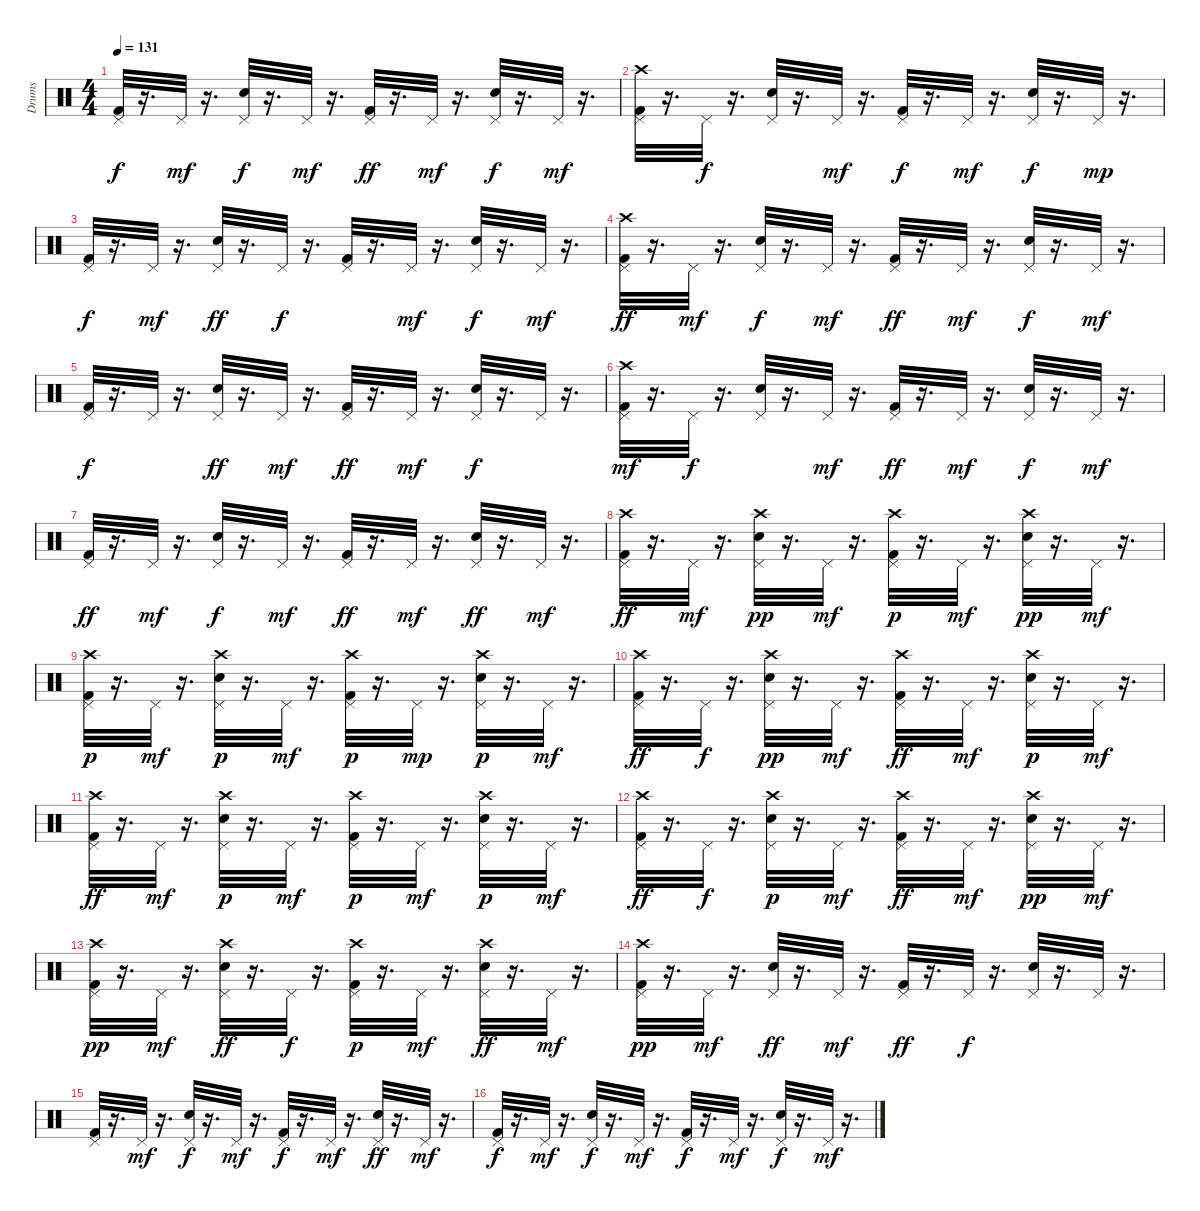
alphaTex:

\track ("Drums" "Drums") {instrument percussion}
\staff {score}
\articulation defaults
\ts (4 4)
\tempo 131
\clef neutral
\ks c
("Pedal Hi-Hat (hit)" "Kick (hit) 2").32{dy f} r.16{d} "Pedal Hi-Hat (hit)".32{dy mf} r.16{d} ("Snare (hit) 2" "Pedal Hi-Hat (hit)").32{dy f} r.16{d} "Pedal Hi-Hat (hit)".32{dy mf} r.16{d} ("Pedal Hi-Hat (hit)" "Kick (hit) 2").32{dy ff} r.16{d} "Pedal Hi-Hat (hit)".32{dy mf} r.16{d} ("Snare (hit) 2" "Pedal Hi-Hat (hit)").32{dy f} r.16{d} "Pedal Hi-Hat (hit)".32{dy mf} r.16{d} |
("Pedal Hi-Hat (hit)" "Kick (hit) 2" "Crash high (hit)").32 r.16{d} "Pedal Hi-Hat (hit)".32{dy f} r.16{d} ("Snare (hit) 2" "Pedal Hi-Hat (hit)").32 r.16{d} "Pedal Hi-Hat (hit)".32{dy mf} r.16{d} ("Pedal Hi-Hat (hit)" "Kick (hit) 2").32{dy f} r.16{d} "Pedal Hi-Hat (hit)".32{dy mf} r.16{d} ("Snare (hit) 2" "Pedal Hi-Hat (hit)").32{dy f} r.16{d} "Pedal Hi-Hat (hit)".32{dy mp} r.16{d} |
("Kick (hit) 2" "Pedal Hi-Hat (hit)").32{dy f} r.16{d} "Pedal Hi-Hat (hit)".32{dy mf} r.16{d} ("Pedal Hi-Hat (hit)" "Snare (hit) 2").32{dy ff} r.16{d} "Pedal Hi-Hat (hit)".32{dy f} r.16{d} ("Kick (hit) 2" "Pedal Hi-Hat (hit)").32 r.16{d} "Pedal Hi-Hat (hit)".32{dy mf} r.16{d} ("Snare (hit) 2" "Pedal Hi-Hat (hit)").32{dy f} r.16{d} "Pedal Hi-Hat (hit)".32{dy mf} r.16{d} |
("Crash high (hit)" "Kick (hit) 2" "Pedal Hi-Hat (hit)").32{dy ff} r.16{d} "Pedal Hi-Hat (hit)".32{dy mf} r.16{d} ("Pedal Hi-Hat (hit)" "Snare (hit) 2").32{dy f} r.16{d} "Pedal Hi-Hat (hit)".32{dy mf} r.16{d} ("Kick (hit) 2" "Pedal Hi-Hat (hit)").32{dy ff} r.16{d} "Pedal Hi-Hat (hit)".32{dy mf} r.16{d} ("Pedal Hi-Hat (hit)" "Snare (hit) 2").32{dy f} r.16{d} "Pedal Hi-Hat (hit)".32{dy mf} r.16{d} |
("Pedal Hi-Hat (hit)" "Kick (hit) 2").32{dy f} r.16{d} "Pedal Hi-Hat (hit)".32 r.16{d} ("Snare (hit) 2" "Pedal Hi-Hat (hit)").32{dy ff} r.16{d} "Pedal Hi-Hat (hit)".32{dy mf} r.16{d} ("Pedal Hi-Hat (hit)" "Kick (hit) 2").32{dy ff} r.16{d} "Pedal Hi-Hat (hit)".32{dy mf} r.16{d} ("Pedal Hi-Hat (hit)" "Snare (hit) 2").32{dy f} r.16{d} "Pedal Hi-Hat (hit)".32 r.16{d} |
("Pedal Hi-Hat (hit)" "Kick (hit) 2" "Crash high (hit)").32{dy mf} r.16{d} "Pedal Hi-Hat (hit)".32{dy f} r.16{d} ("Snare (hit) 2" "Pedal Hi-Hat (hit)").32 r.16{d} "Pedal Hi-Hat (hit)".32{dy mf} r.16{d} ("Pedal Hi-Hat (hit)" "Kick (hit) 2").32{dy ff} r.16{d} "Pedal Hi-Hat (hit)".32{dy mf} r.16{d} ("Snare (hit) 2" "Pedal Hi-Hat (hit)").32{dy f} r.16{d} "Pedal Hi-Hat (hit)".32{dy mf} r.16{d} |
("Pedal Hi-Hat (hit)" "Kick (hit) 2").32{dy ff} r.16{d} "Pedal Hi-Hat (hit)".32{dy mf} r.16{d} ("Pedal Hi-Hat (hit)" "Snare (hit) 2").32{dy f} r.16{d} "Pedal Hi-Hat (hit)".32{dy mf} r.16{d} ("Pedal Hi-Hat (hit)" "Kick (hit) 2").32{dy ff} r.16{d} "Pedal Hi-Hat (hit)".32{dy mf} r.16{d} ("Snare (hit) 2" "Pedal Hi-Hat (hit)").32{dy ff} r.16{d} "Pedal Hi-Hat (hit)".32{dy mf} r.16{d} |
("Kick (hit) 2" "Crash high (hit)" "Pedal Hi-Hat (hit)").32{dy ff} r.16{d} "Pedal Hi-Hat (hit)".32{dy mf} r.16{d} ("Crash high (hit)" "Snare (hit) 2" "Pedal Hi-Hat (hit)").32{dy pp} r.16{d} "Pedal Hi-Hat (hit)".32{dy mf} r.16{d} ("Pedal Hi-Hat (hit)" "Kick (hit) 2" "Crash high (hit)").32{dy p} r.16{d} "Pedal Hi-Hat (hit)".32{dy mf} r.16{d} ("Snare (hit) 2" "Crash high (hit)" "Pedal Hi-Hat (hit)").32{dy pp} r.16{d} "Pedal Hi-Hat (hit)".32{dy mf} r.16{d} |
("Crash high (hit)" "Pedal Hi-Hat (hit)" "Kick (hit) 2").32{dy p} r.16{d} "Pedal Hi-Hat (hit)".32{dy mf} r.16{d} ("Pedal Hi-Hat (hit)" "Snare (hit) 2" "Crash high (hit)").32{dy p} r.16{d} "Pedal Hi-Hat (hit)".32{dy mf} r.16{d} ("Crash high (hit)" "Kick (hit) 2" "Pedal Hi-Hat (hit)").32{dy p} r.16{d} "Pedal Hi-Hat (hit)".32{dy mp} r.16{d} ("Pedal Hi-Hat (hit)" "Crash high (hit)" "Snare (hit) 2").32{dy p} r.16{d} "Pedal Hi-Hat (hit)".32{dy mf} r.16{d} |
("Crash high (hit)" "Kick (hit) 2" "Pedal Hi-Hat (hit)").32{dy ff} r.16{d} "Pedal Hi-Hat (hit)".32{dy f} r.16{d} ("Pedal Hi-Hat (hit)" "Snare (hit) 2" "Crash high (hit)").32{dy pp} r.16{d} "Pedal Hi-Hat (hit)".32{dy mf} r.16{d} ("Kick (hit) 2" "Crash high (hit)" "Pedal Hi-Hat (hit)").32{dy ff} r.16{d} "Pedal Hi-Hat (hit)".32{dy mf} r.16{d} ("Pedal Hi-Hat (hit)" "Snare (hit) 2" "Crash high (hit)").32{dy p} r.16{d} "Pedal Hi-Hat (hit)".32{dy mf} r.16{d} |
("Crash high (hit)" "Kick (hit) 2" "Pedal Hi-Hat (hit)").32{dy ff} r.16{d} "Pedal Hi-Hat (hit)".32{dy mf} r.16{d} ("Pedal Hi-Hat (hit)" "Crash high (hit)" "Snare (hit) 2").32{dy p} r.16{d} "Pedal Hi-Hat (hit)".32{dy mf} r.16{d} ("Pedal Hi-Hat (hit)" "Kick (hit) 2" "Crash high (hit)").32{dy p} r.16{d} "Pedal Hi-Hat (hit)".32{dy mf} r.16{d} ("Pedal Hi-Hat (hit)" "Snare (hit) 2" "Crash high (hit)").32{dy p} r.16{d} "Pedal Hi-Hat (hit)".32{dy mf} r.16{d} |
("Crash high (hit)" "Pedal Hi-Hat (hit)" "Kick (hit) 2").32{dy ff} r.16{d} "Pedal Hi-Hat (hit)".32{dy f} r.16{d} ("Pedal Hi-Hat (hit)" "Snare (hit) 2" "Crash high (hit)").32{dy p} r.16{d} "Pedal Hi-Hat (hit)".32{dy mf} r.16{d} ("Kick (hit) 2" "Crash high (hit)" "Pedal Hi-Hat (hit)").32{dy ff} r.16{d} "Pedal Hi-Hat (hit)".32{dy mf} r.16{d} ("Snare (hit) 2" "Pedal Hi-Hat (hit)" "Crash high (hit)").32{dy pp} r.16{d} "Pedal Hi-Hat (hit)".32{dy mf} r.16{d} |
("Crash high (hit)" "Pedal Hi-Hat (hit)" "Kick (hit) 2").32{dy pp} r.16{d} "Pedal Hi-Hat (hit)".32{dy mf} r.16{d} ("Crash high (hit)" "Pedal Hi-Hat (hit)" "Snare (hit) 2").32{dy ff} r.16{d} "Pedal Hi-Hat (hit)".32{dy f} r.16{d} ("Pedal Hi-Hat (hit)" "Kick (hit) 2" "Crash high (hit)").32{dy p} r.16{d} "Pedal Hi-Hat (hit)".32{dy mf} r.16{d} ("Snare (hit) 2" "Crash high (hit)" "Pedal Hi-Hat (hit)").32{dy ff} r.16{d} "Pedal Hi-Hat (hit)".32{dy mf} r.16{d} |
("Kick (hit) 2" "Crash high (hit)" "Pedal Hi-Hat (hit)").32{dy pp} r.16{d} "Pedal Hi-Hat (hit)".32{dy mf} r.16{d} ("Snare (hit) 2" "Pedal Hi-Hat (hit)").32{dy ff} r.16{d} "Pedal Hi-Hat (hit)".32{dy mf} r.16{d} ("Pedal Hi-Hat (hit)" "Kick (hit) 2").32{dy ff} r.16{d} "Pedal Hi-Hat (hit)".32{dy f} r.16{d} ("Pedal Hi-Hat (hit)" "Snare (hit) 2").32 r.16{d} "Pedal Hi-Hat (hit)".32 r.16{d} |
("Pedal Hi-Hat (hit)" "Kick (hit) 2").32 r.16{d} "Pedal Hi-Hat (hit)".32{dy mf} r.16{d} ("Pedal Hi-Hat (hit)" "Snare (hit) 2").32{dy f} r.16{d} "Pedal Hi-Hat (hit)".32{dy mf} r.16{d} ("Kick (hit) 2" "Pedal Hi-Hat (hit)").32{dy f} r.16{d} "Pedal Hi-Hat (hit)".32{dy mf} r.16{d} ("Snare (hit) 2" "Pedal Hi-Hat (hit)").32{dy ff} r.16{d} "Pedal Hi-Hat (hit)".32{dy mf} r.16{d} |
("Kick (hit) 2" "Pedal Hi-Hat (hit)").32{dy f} r.16{d} "Pedal Hi-Hat (hit)".32{dy mf} r.16{d} ("Snare (hit) 2" "Pedal Hi-Hat (hit)").32{dy f} r.16{d} "Pedal Hi-Hat (hit)".32{dy mf} r.16{d} ("Pedal Hi-Hat (hit)" "Kick (hit) 2").32{dy f} r.16{d} "Pedal Hi-Hat (hit)".32{dy mf} r.16{d} ("Snare (hit) 2" "Pedal Hi-Hat (hit)").32{dy f} r.16{d} "Pedal Hi-Hat (hit)".32{dy mf} r.16{d}
